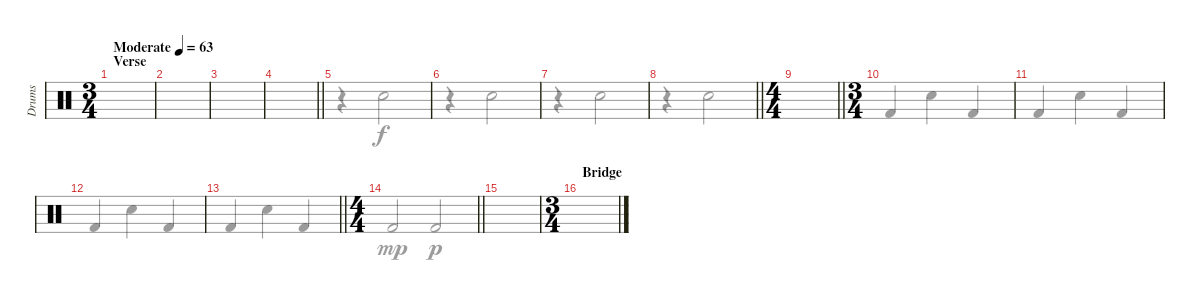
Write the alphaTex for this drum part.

\bracketExtendMode groupsimilarinstruments
\otherSystemsTrackNameOrientation horizontal
\track ("Drumkit" "Drums") {instrument percussion}
\staff {score}
\articulation defaults
\voice
\ts (3 4)
\beaming (8 2 2 2)
\section ("" "Verse")
\tempo (63 "Moderate")
\clef neutral
\scale
0.472222
\ks c
|
\scale
0.263889 |
\scale
0.263889 |
\barLineRight lightlight
|
\scale
0.333333 |
\scale
0.333333 |
\scale
0.333333 |
\scale
0.218391
\barLineRight lightlight
|
\ts (4 4)
\beaming (8 2 2 2 2)
\scale
0.390805
\barLineRight lightlight
|
\ts (3 4)
\beaming (8 2 2 2)
\scale
0.390805 |
\scale
0.333333 |
\scale
0.333333 |
\scale
0.333333
\barLineRight lightlight
|
\ts (4 4)
\beaming (8 2 2 2 2)
\barLineRight lightlight
|
\scale
0.218391 |
\ts (3 4)
\beaming (8 2 2 2)
\section ("" "Bridge")
\scale
0.390805
\voice
\clef neutral
\ottava regular
\simile none
\scale
0.472222
\ks c
|
\scale
0.263889 |
\scale
0.263889 |
\barLineRight lightlight
|
\scale
0.333333 |
\scale
0.333333 |
\scale
0.333333 |
\scale
0.218391
\barLineRight lightlight
|
\scale
0.390805
\barLineRight lightlight
|
\scale
0.390805 |
\scale
0.333333 |
\scale
0.333333 |
\scale
0.333333
\barLineRight lightlight
|
\barLineRight lightlight
|
\scale
0.218391 |
\scale
0.390805
\voice
\clef neutral
\ottava regular
\simile none
\scale
0.472222
\ks c
|
\scale
0.263889 |
\scale
0.263889 |
\barLineRight lightlight
|
\scale
0.333333 r.4{beam Down} "Snare (hit) 2".2{beam Down} |
\scale
0.333333 r.4{beam Down} "Snare (hit) 2".2{beam Down} |
\scale
0.333333 r.4{beam Down} "Snare (hit) 2".2{beam Down} |
\scale
0.218391
\barLineRight lightlight
r.4{beam Down} "Snare (hit) 2".2{beam Down} |
\scale
0.390805
\barLineRight lightlight
|
\scale
0.390805 "Kick (hit) 2".4{beam Up} "Snare (hit) 2".4{beam Down} "Kick (hit) 2".4{beam Up} |
\scale
0.333333 "Kick (hit) 2".4{beam Up} "Snare (hit) 2".4{beam Down} "Kick (hit) 2".4{beam Up} |
\scale
0.333333 "Kick (hit) 2".4{beam Up} "Snare (hit) 2".4{beam Down} "Kick (hit) 2".4{beam Up} |
\scale
0.333333
\barLineRight lightlight "Kick (hit) 2".4{beam Up} "Snare (hit) 2".4{beam Down} "Kick (hit) 2".4{beam Up}
|
\barLineRight lightlight "Kick (hit) 2".2{dy mp beam Up} "Kick (hit) 2".2{dy p beam Up}
|
\scale
0.218391 |
\scale
0.390805
